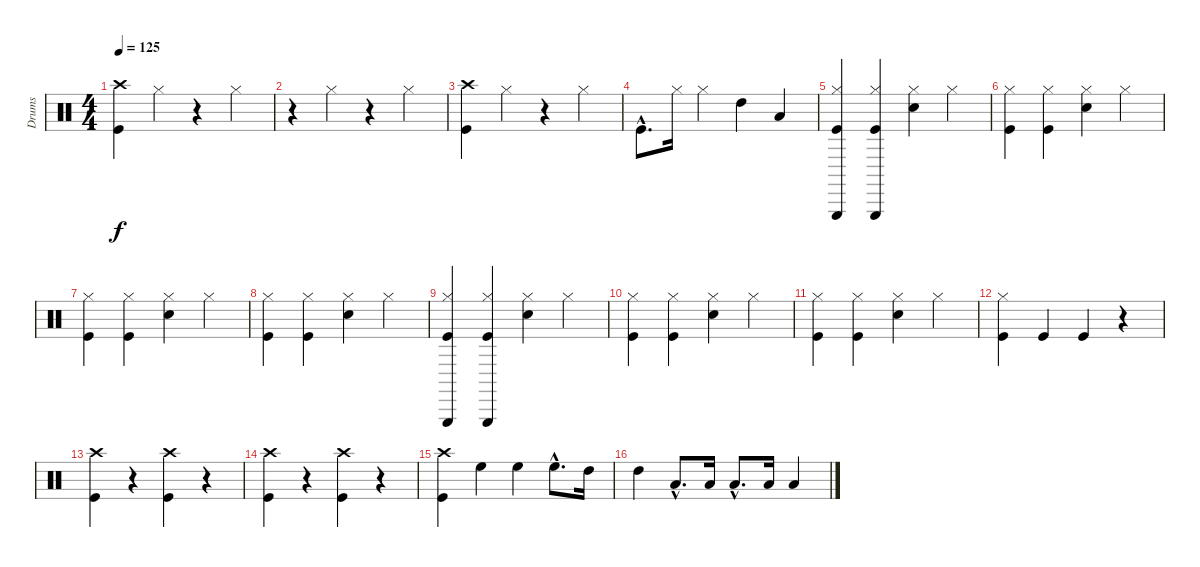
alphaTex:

\track ("Drums" "Drums") {instrument percussion}
\staff {score}
\articulation defaults
\ts (4 4)
\tempo 125
\clef neutral
\ks c
("Crash high (hit)" "Kick (hit)").4{dy f} "Hi-Hat (closed)".4 r.4 "Hi-Hat (closed)".4 |
r.4 "Hi-Hat (closed)".4 r.4 "Hi-Hat (closed)".4 |
("Crash high (hit)" "Kick (hit)").4 "Hi-Hat (closed)".4 r.4 "Hi-Hat (closed)".4 |
"Kick (hit)"{hac}.8{d} "Hi-Hat (closed)".16 "Hi-Hat (closed)".4 "High Tom (hit)".4 "Low Floor Tom (hit)".4 |
("Hi-Hat (closed)" "Triangle (hit)" "Kick (hit)").4{volume 16} ("Hi-Hat (closed)" "Triangle (hit)" "Kick (hit)").4 ("Hi-Hat (closed)" "Snare (hit) 2").4{volume 13} "Hi-Hat (closed)".4 |
("Hi-Hat (closed)" "Kick (hit)").4 ("Hi-Hat (closed)" "Kick (hit)").4 ("Hi-Hat (closed)" "Snare (hit) 2").4 "Hi-Hat (closed)".4 |
("Hi-Hat (closed)" "Kick (hit)").4 ("Hi-Hat (closed)" "Kick (hit)").4 ("Hi-Hat (closed)" "Snare (hit) 2").4 "Hi-Hat (closed)".4 |
("Hi-Hat (closed)" "Kick (hit)").4 ("Hi-Hat (closed)" "Kick (hit)").4 ("Hi-Hat (closed)" "Snare (hit) 2").4 "Hi-Hat (closed)".4 |
("Hi-Hat (closed)" "Triangle (hit)" "Kick (hit)").4{volume 16} ("Hi-Hat (closed)" "Triangle (hit)" "Kick (hit)").4 ("Hi-Hat (closed)" "Snare (hit) 2").4{volume 13} "Hi-Hat (closed)".4 |
("Hi-Hat (closed)" "Kick (hit)").4 ("Hi-Hat (closed)" "Kick (hit)").4 ("Hi-Hat (closed)" "Snare (hit) 2").4 "Hi-Hat (closed)".4 |
("Hi-Hat (closed)" "Kick (hit)").4 ("Hi-Hat (closed)" "Kick (hit)").4 ("Hi-Hat (closed)" "Snare (hit) 2").4 "Hi-Hat (closed)".4 |
("Hi-Hat (closed)" "Kick (hit)").4 "Kick (hit)".4 "Kick (hit)".4 r.4 |
("Crash high (hit)" "Kick (hit)").4 r.4 ("Crash high (hit)" "Kick (hit)").4 r.4 |
("Crash high (hit)" "Kick (hit)").4 r.4 ("Crash high (hit)" "Kick (hit)").4 r.4 |
("Crash high (hit)" "Kick (hit)").4 "High Floor Tom (hit)".4 "High Floor Tom (hit)".4 "High Floor Tom (hit)"{hac}.8{d} "High Tom (hit)".16 |
"High Tom (hit)".4 "Low Floor Tom (hit)"{hac}.8{d} "Low Floor Tom (hit)".16 "Low Floor Tom (hit)"{hac}.8{d} "Low Floor Tom (hit)".16 "Low Floor Tom (hit)".4
